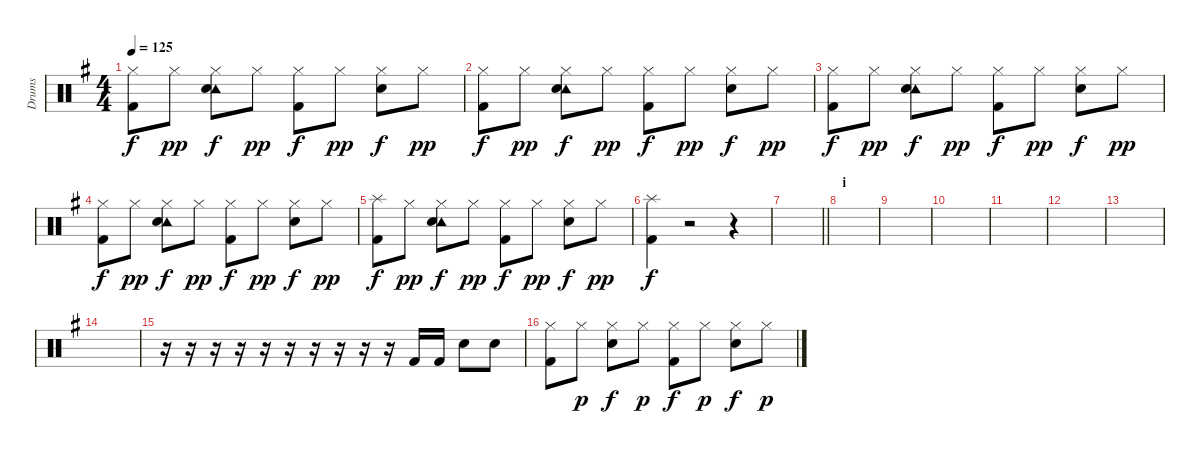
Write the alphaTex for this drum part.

\track ("Drums" "Drums") {instrument percussion}
\staff {score}
\articulation defaults
\ts (4 4)
\tempo 125
\clef neutral
\ks g
("Hi-Hat (closed)" "Kick (hit) 2").8{dy f} "Hi-Hat (closed)".8{dy pp} ("Hi-Hat (closed)" "Tambourine (hit)" "Electric Snare (hit)").8{dy f} "Hi-Hat (closed)".8{dy pp} ("Hi-Hat (closed)" "Kick (hit) 2").8{dy f} "Hi-Hat (closed)".8{dy pp} ("Hi-Hat (closed)" "Electric Snare (hit)").8{dy f} "Hi-Hat (closed)".8{dy pp} |
("Hi-Hat (closed)" "Kick (hit) 2").8{dy f} "Hi-Hat (closed)".8{dy pp} ("Hi-Hat (closed)" "Tambourine (hit)" "Electric Snare (hit)").8{dy f} "Hi-Hat (closed)".8{dy pp} ("Hi-Hat (closed)" "Kick (hit) 2").8{dy f} "Hi-Hat (closed)".8{dy pp} ("Hi-Hat (closed)" "Electric Snare (hit)").8{dy f} "Hi-Hat (closed)".8{dy pp} |
("Hi-Hat (closed)" "Kick (hit) 2").8{dy f} "Hi-Hat (closed)".8{dy pp} ("Hi-Hat (closed)" "Tambourine (hit)" "Electric Snare (hit)").8{dy f} "Hi-Hat (closed)".8{dy pp} ("Hi-Hat (closed)" "Kick (hit) 2").8{dy f} "Hi-Hat (closed)".8{dy pp} ("Hi-Hat (closed)" "Electric Snare (hit)").8{dy f} "Hi-Hat (closed)".8{dy pp} |
("Hi-Hat (closed)" "Kick (hit) 2").8{dy f} "Hi-Hat (closed)".8{dy pp} ("Hi-Hat (closed)" "Tambourine (hit)" "Electric Snare (hit)").8{dy f} "Hi-Hat (closed)".8{dy pp} ("Hi-Hat (closed)" "Kick (hit) 2").8{dy f} "Hi-Hat (closed)".8{dy pp} ("Hi-Hat (closed)" "Electric Snare (hit)").8{dy f} "Hi-Hat (closed)".8{dy pp} |
("Splash (hit)" "Kick (hit) 2").8{dy f} "Hi-Hat (closed)".8{dy pp} ("Hi-Hat (closed)" "Tambourine (hit)" "Electric Snare (hit)").8{dy f} "Hi-Hat (closed)".8{dy pp} ("Hi-Hat (closed)" "Kick (hit) 2").8{dy f} "Hi-Hat (closed)".8{dy pp} ("Hi-Hat (closed)" "Electric Snare (hit)").8{dy f} "Hi-Hat (closed)".8{dy pp} |
("Splash (hit)" "Kick (hit) 2").4{dy f} r.2 r.4 |
\barLineRight lightlight
|
\section ("" "i")
|
|
|
|
|
|
|
r.16 r.16 r.16 r.16 r.16 r.16 r.16 r.16 r.16 r.16 "Kick (hit) 2".16 "Kick (hit) 2".16 "Electric Snare (hit)".8 "Electric Snare (hit)".8 |
("Hi-Hat (closed)" "Kick (hit) 2").8 "Hi-Hat (closed)".8{dy p} ("Hi-Hat (closed)" "Electric Snare (hit)").8{dy f} "Hi-Hat (closed)".8{dy p} ("Hi-Hat (closed)" "Kick (hit) 2").8{dy f} "Hi-Hat (closed)".8{dy p} ("Hi-Hat (closed)" "Electric Snare (hit)").8{dy f} "Hi-Hat (closed)".8{dy p}
